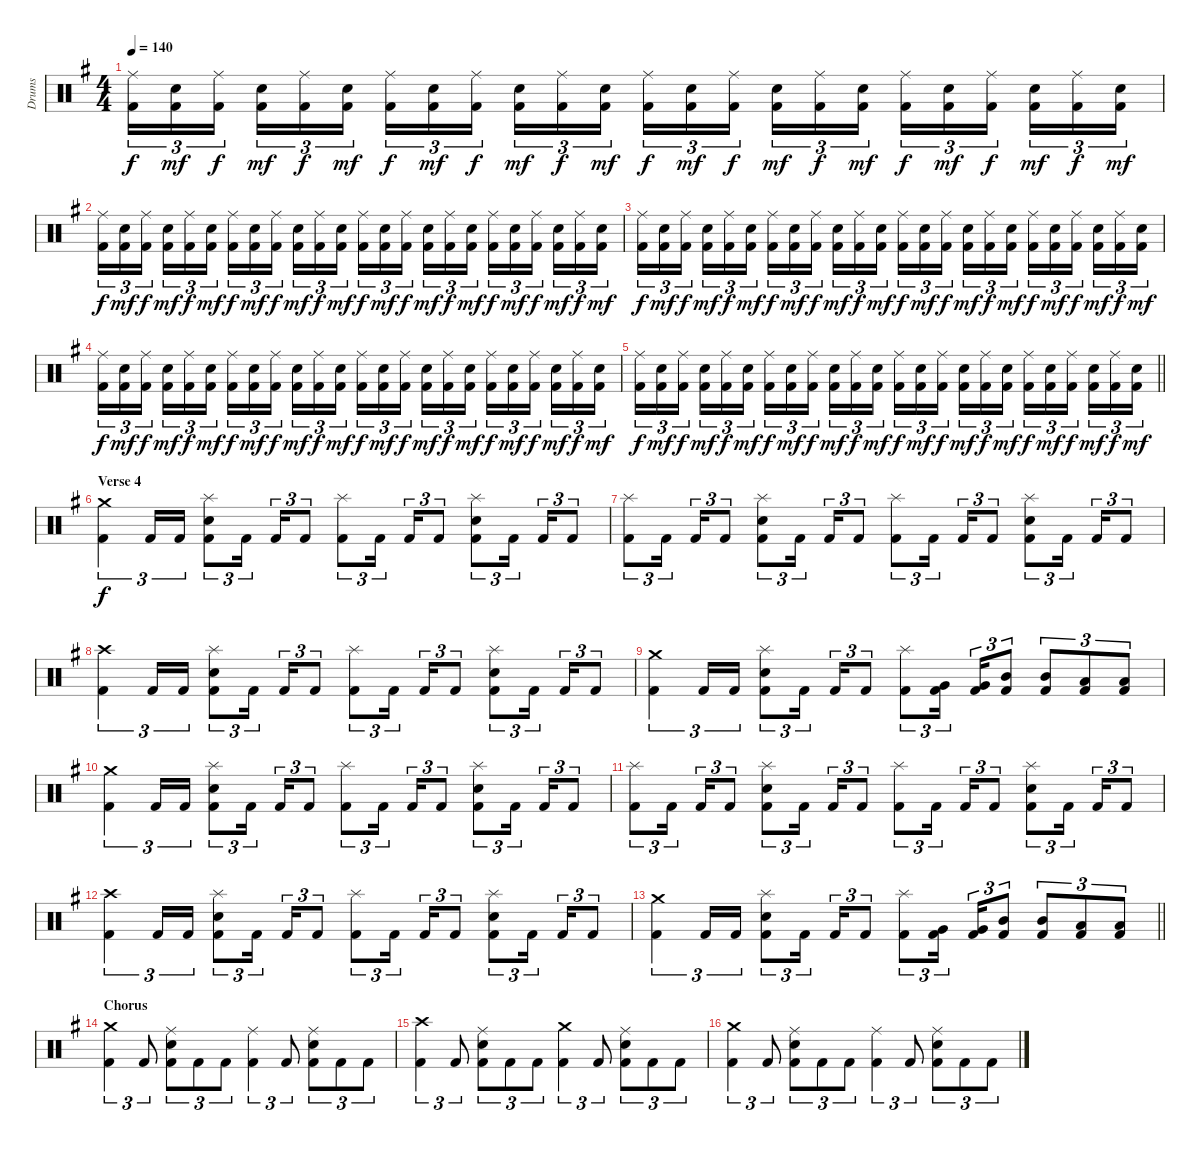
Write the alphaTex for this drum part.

\track ("Drums" "Drums") {instrument percussion}
\staff {score}
\articulation defaults
\ts (4 4)
\tempo 140
\clef neutral
\ks eminor
("Ride (middle)" "Kick (hit) 2").16{tu (3 2) dy f} ("Electric Snare (hit)" "Kick (hit) 2").16{tu (3 2) dy mf} ("Ride (middle)" "Kick (hit) 2").16{tu (3 2) dy f beam splitsecondary} ("Electric Snare (hit)" "Kick (hit) 2").16{tu (3 2) dy mf} ("Ride (middle)" "Kick (hit) 2").16{tu (3 2) dy f} ("Electric Snare (hit)" "Kick (hit) 2").16{tu (3 2) dy mf} ("Ride (middle)" "Kick (hit) 2").16{tu (3 2) dy f} ("Electric Snare (hit)" "Kick (hit) 2").16{tu (3 2) dy mf} ("Ride (middle)" "Kick (hit) 2").16{tu (3 2) dy f beam splitsecondary} ("Electric Snare (hit)" "Kick (hit) 2").16{tu (3 2) dy mf} ("Ride (middle)" "Kick (hit) 2").16{tu (3 2) dy f} ("Electric Snare (hit)" "Kick (hit) 2").16{tu (3 2) dy mf} ("Ride (middle)" "Kick (hit) 2").16{tu (3 2) dy f} ("Electric Snare (hit)" "Kick (hit) 2").16{tu (3 2) dy mf} ("Ride (middle)" "Kick (hit) 2").16{tu (3 2) dy f beam splitsecondary} ("Electric Snare (hit)" "Kick (hit) 2").16{tu (3 2) dy mf} ("Ride (middle)" "Kick (hit) 2").16{tu (3 2) dy f} ("Electric Snare (hit)" "Kick (hit) 2").16{tu (3 2) dy mf} ("Ride (middle)" "Kick (hit) 2").16{tu (3 2) dy f} ("Electric Snare (hit)" "Kick (hit) 2").16{tu (3 2) dy mf} ("Ride (middle)" "Kick (hit) 2").16{tu (3 2) dy f beam splitsecondary} ("Electric Snare (hit)" "Kick (hit) 2").16{tu (3 2) dy mf} ("Ride (middle)" "Kick (hit) 2").16{tu (3 2) dy f} ("Electric Snare (hit)" "Kick (hit) 2").16{tu (3 2) dy mf} |
("Ride (middle)" "Kick (hit) 2").16{tu (3 2) dy f} ("Electric Snare (hit)" "Kick (hit) 2").16{tu (3 2) dy mf} ("Ride (middle)" "Kick (hit) 2").16{tu (3 2) dy f beam splitsecondary} ("Electric Snare (hit)" "Kick (hit) 2").16{tu (3 2) dy mf} ("Ride (middle)" "Kick (hit) 2").16{tu (3 2) dy f} ("Electric Snare (hit)" "Kick (hit) 2").16{tu (3 2) dy mf} ("Ride (middle)" "Kick (hit) 2").16{tu (3 2) dy f} ("Electric Snare (hit)" "Kick (hit) 2").16{tu (3 2) dy mf} ("Ride (middle)" "Kick (hit) 2").16{tu (3 2) dy f beam splitsecondary} ("Electric Snare (hit)" "Kick (hit) 2").16{tu (3 2) dy mf} ("Ride (middle)" "Kick (hit) 2").16{tu (3 2) dy f} ("Electric Snare (hit)" "Kick (hit) 2").16{tu (3 2) dy mf} ("Ride (middle)" "Kick (hit) 2").16{tu (3 2) dy f} ("Electric Snare (hit)" "Kick (hit) 2").16{tu (3 2) dy mf} ("Ride (middle)" "Kick (hit) 2").16{tu (3 2) dy f beam splitsecondary} ("Electric Snare (hit)" "Kick (hit) 2").16{tu (3 2) dy mf} ("Ride (middle)" "Kick (hit) 2").16{tu (3 2) dy f} ("Electric Snare (hit)" "Kick (hit) 2").16{tu (3 2) dy mf} ("Ride (middle)" "Kick (hit) 2").16{tu (3 2) dy f} ("Electric Snare (hit)" "Kick (hit) 2").16{tu (3 2) dy mf} ("Ride (middle)" "Kick (hit) 2").16{tu (3 2) dy f beam splitsecondary} ("Electric Snare (hit)" "Kick (hit) 2").16{tu (3 2) dy mf} ("Ride (middle)" "Kick (hit) 2").16{tu (3 2) dy f} ("Electric Snare (hit)" "Kick (hit) 2").16{tu (3 2) dy mf} |
("Ride (middle)" "Kick (hit) 2").16{tu (3 2) dy f} ("Electric Snare (hit)" "Kick (hit) 2").16{tu (3 2) dy mf} ("Ride (middle)" "Kick (hit) 2").16{tu (3 2) dy f beam splitsecondary} ("Electric Snare (hit)" "Kick (hit) 2").16{tu (3 2) dy mf} ("Ride (middle)" "Kick (hit) 2").16{tu (3 2) dy f} ("Electric Snare (hit)" "Kick (hit) 2").16{tu (3 2) dy mf} ("Ride (middle)" "Kick (hit) 2").16{tu (3 2) dy f} ("Electric Snare (hit)" "Kick (hit) 2").16{tu (3 2) dy mf} ("Ride (middle)" "Kick (hit) 2").16{tu (3 2) dy f beam splitsecondary} ("Electric Snare (hit)" "Kick (hit) 2").16{tu (3 2) dy mf} ("Ride (middle)" "Kick (hit) 2").16{tu (3 2) dy f} ("Electric Snare (hit)" "Kick (hit) 2").16{tu (3 2) dy mf} ("Ride (middle)" "Kick (hit) 2").16{tu (3 2) dy f} ("Electric Snare (hit)" "Kick (hit) 2").16{tu (3 2) dy mf} ("Ride (middle)" "Kick (hit) 2").16{tu (3 2) dy f beam splitsecondary} ("Electric Snare (hit)" "Kick (hit) 2").16{tu (3 2) dy mf} ("Ride (middle)" "Kick (hit) 2").16{tu (3 2) dy f} ("Electric Snare (hit)" "Kick (hit) 2").16{tu (3 2) dy mf} ("Ride (middle)" "Kick (hit) 2").16{tu (3 2) dy f} ("Electric Snare (hit)" "Kick (hit) 2").16{tu (3 2) dy mf} ("Ride (middle)" "Kick (hit) 2").16{tu (3 2) dy f beam splitsecondary} ("Electric Snare (hit)" "Kick (hit) 2").16{tu (3 2) dy mf} ("Ride (middle)" "Kick (hit) 2").16{tu (3 2) dy f} ("Electric Snare (hit)" "Kick (hit) 2").16{tu (3 2) dy mf} |
("Ride (middle)" "Kick (hit) 2").16{tu (3 2) dy f} ("Electric Snare (hit)" "Kick (hit) 2").16{tu (3 2) dy mf} ("Ride (middle)" "Kick (hit) 2").16{tu (3 2) dy f beam splitsecondary} ("Electric Snare (hit)" "Kick (hit) 2").16{tu (3 2) dy mf} ("Ride (middle)" "Kick (hit) 2").16{tu (3 2) dy f} ("Electric Snare (hit)" "Kick (hit) 2").16{tu (3 2) dy mf} ("Ride (middle)" "Kick (hit) 2").16{tu (3 2) dy f} ("Electric Snare (hit)" "Kick (hit) 2").16{tu (3 2) dy mf} ("Ride (middle)" "Kick (hit) 2").16{tu (3 2) dy f beam splitsecondary} ("Electric Snare (hit)" "Kick (hit) 2").16{tu (3 2) dy mf} ("Ride (middle)" "Kick (hit) 2").16{tu (3 2) dy f} ("Electric Snare (hit)" "Kick (hit) 2").16{tu (3 2) dy mf} ("Ride (middle)" "Kick (hit) 2").16{tu (3 2) dy f} ("Electric Snare (hit)" "Kick (hit) 2").16{tu (3 2) dy mf} ("Ride (middle)" "Kick (hit) 2").16{tu (3 2) dy f beam splitsecondary} ("Electric Snare (hit)" "Kick (hit) 2").16{tu (3 2) dy mf} ("Ride (middle)" "Kick (hit) 2").16{tu (3 2) dy f} ("Electric Snare (hit)" "Kick (hit) 2").16{tu (3 2) dy mf} ("Ride (middle)" "Kick (hit) 2").16{tu (3 2) dy f} ("Electric Snare (hit)" "Kick (hit) 2").16{tu (3 2) dy mf} ("Ride (middle)" "Kick (hit) 2").16{tu (3 2) dy f beam splitsecondary} ("Electric Snare (hit)" "Kick (hit) 2").16{tu (3 2) dy mf} ("Ride (middle)" "Kick (hit) 2").16{tu (3 2) dy f} ("Electric Snare (hit)" "Kick (hit) 2").16{tu (3 2) dy mf} |
\barLineRight lightlight
("Ride (middle)" "Kick (hit) 2").16{tu (3 2) dy f} ("Electric Snare (hit)" "Kick (hit) 2").16{tu (3 2) dy mf} ("Ride (middle)" "Kick (hit) 2").16{tu (3 2) dy f beam splitsecondary} ("Electric Snare (hit)" "Kick (hit) 2").16{tu (3 2) dy mf} ("Ride (middle)" "Kick (hit) 2").16{tu (3 2) dy f} ("Electric Snare (hit)" "Kick (hit) 2").16{tu (3 2) dy mf} ("Ride (middle)" "Kick (hit) 2").16{tu (3 2) dy f} ("Electric Snare (hit)" "Kick (hit) 2").16{tu (3 2) dy mf} ("Ride (middle)" "Kick (hit) 2").16{tu (3 2) dy f beam splitsecondary} ("Electric Snare (hit)" "Kick (hit) 2").16{tu (3 2) dy mf} ("Ride (middle)" "Kick (hit) 2").16{tu (3 2) dy f} ("Electric Snare (hit)" "Kick (hit) 2").16{tu (3 2) dy mf} ("Ride (middle)" "Kick (hit) 2").16{tu (3 2) dy f} ("Electric Snare (hit)" "Kick (hit) 2").16{tu (3 2) dy mf} ("Ride (middle)" "Kick (hit) 2").16{tu (3 2) dy f beam splitsecondary} ("Electric Snare (hit)" "Kick (hit) 2").16{tu (3 2) dy mf} ("Ride (middle)" "Kick (hit) 2").16{tu (3 2) dy f} ("Electric Snare (hit)" "Kick (hit) 2").16{tu (3 2) dy mf} ("Ride (middle)" "Kick (hit) 2").16{tu (3 2) dy f} ("Electric Snare (hit)" "Kick (hit) 2").16{tu (3 2) dy mf} ("Ride (middle)" "Kick (hit) 2").16{tu (3 2) dy f beam splitsecondary} ("Electric Snare (hit)" "Kick (hit) 2").16{tu (3 2) dy mf} ("Ride (middle)" "Kick (hit) 2").16{tu (3 2) dy f} ("Electric Snare (hit)" "Kick (hit) 2").16{tu (3 2) dy mf} |
\section ("" "Verse 4")
("Crash medium (hit)" "Kick (hit) 2").4{tu (3 2) dy f} "Kick (hit) 2".16{tu (3 2)} "Kick (hit) 2".16{tu (3 2)} ("Splash (hit)" "Electric Snare (hit)" "Kick (hit) 2").8{tu (3 2)} "Kick (hit) 2".16{tu (3 2) beam splitsecondary} "Kick (hit) 2".16{tu (3 2)} "Kick (hit) 2".8{tu (3 2)} ("Splash (hit)" "Kick (hit) 2").8{tu (3 2)} "Kick (hit) 2".16{tu (3 2) beam splitsecondary} "Kick (hit) 2".16{tu (3 2)} "Kick (hit) 2".8{tu (3 2)} ("Splash (hit)" "Electric Snare (hit)" "Kick (hit) 2").8{tu (3 2)} "Kick (hit) 2".16{tu (3 2) beam splitsecondary} "Kick (hit) 2".16{tu (3 2)} "Kick (hit) 2".8{tu (3 2)} |
("Splash (hit)" "Kick (hit) 2").8{tu (3 2)} "Kick (hit) 2".16{tu (3 2) beam splitsecondary} "Kick (hit) 2".16{tu (3 2)} "Kick (hit) 2".8{tu (3 2)} ("Splash (hit)" "Electric Snare (hit)" "Kick (hit) 2").8{tu (3 2)} "Kick (hit) 2".16{tu (3 2) beam splitsecondary} "Kick (hit) 2".16{tu (3 2)} "Kick (hit) 2".8{tu (3 2)} ("Splash (hit)" "Kick (hit) 2").8{tu (3 2)} "Kick (hit) 2".16{tu (3 2) beam splitsecondary} "Kick (hit) 2".16{tu (3 2)} "Kick (hit) 2".8{tu (3 2)} ("Splash (hit)" "Electric Snare (hit)" "Kick (hit) 2").8{tu (3 2)} "Kick (hit) 2".16{tu (3 2) beam splitsecondary} "Kick (hit) 2".16{tu (3 2)} "Kick (hit) 2".8{tu (3 2)} |
("Crash high (hit)" "Kick (hit) 2").4{tu (3 2)} "Kick (hit) 2".16{tu (3 2)} "Kick (hit) 2".16{tu (3 2)} ("Splash (hit)" "Electric Snare (hit)" "Kick (hit) 2").8{tu (3 2)} "Kick (hit) 2".16{tu (3 2) beam splitsecondary} "Kick (hit) 2".16{tu (3 2)} "Kick (hit) 2".8{tu (3 2)} ("Splash (hit)" "Kick (hit) 2").8{tu (3 2)} "Kick (hit) 2".16{tu (3 2) beam splitsecondary} "Kick (hit) 2".16{tu (3 2)} "Kick (hit) 2".8{tu (3 2)} ("Splash (hit)" "Electric Snare (hit)" "Kick (hit) 2").8{tu (3 2)} "Kick (hit) 2".16{tu (3 2) beam splitsecondary} "Kick (hit) 2".16{tu (3 2)} "Kick (hit) 2".8{tu (3 2)} |
("Crash medium (hit)" "Kick (hit) 2").4{tu (3 2)} "Kick (hit) 2".16{tu (3 2)} "Kick (hit) 2".16{tu (3 2)} ("Splash (hit)" "Electric Snare (hit)" "Kick (hit) 2").8{tu (3 2)} "Kick (hit) 2".16{tu (3 2) beam splitsecondary} "Kick (hit) 2".16{tu (3 2)} "Kick (hit) 2".8{tu (3 2)} ("Splash (hit)" "Kick (hit) 2").8{tu (3 2)} ("Very Low Tom (hit)" "Kick (hit) 2").16{tu (3 2) beam splitsecondary} ("Very Low Tom (hit)" "Kick (hit) 2").16{tu (3 2)} ("Mid Tom (hit)" "Kick (hit) 2").8{tu (3 2)} ("Mid Tom (hit)" "Kick (hit) 2").8{tu (3 2)} ("Low Tom (hit)" "Kick (hit) 2").8{tu (3 2)} ("Low Tom (hit)" "Kick (hit) 2").8{tu (3 2)} |
("Crash medium (hit)" "Kick (hit) 2").4{tu (3 2)} "Kick (hit) 2".16{tu (3 2)} "Kick (hit) 2".16{tu (3 2)} ("Splash (hit)" "Electric Snare (hit)" "Kick (hit) 2").8{tu (3 2)} "Kick (hit) 2".16{tu (3 2) beam splitsecondary} "Kick (hit) 2".16{tu (3 2)} "Kick (hit) 2".8{tu (3 2)} ("Splash (hit)" "Kick (hit) 2").8{tu (3 2)} "Kick (hit) 2".16{tu (3 2) beam splitsecondary} "Kick (hit) 2".16{tu (3 2)} "Kick (hit) 2".8{tu (3 2)} ("Splash (hit)" "Electric Snare (hit)" "Kick (hit) 2").8{tu (3 2)} "Kick (hit) 2".16{tu (3 2) beam splitsecondary} "Kick (hit) 2".16{tu (3 2)} "Kick (hit) 2".8{tu (3 2)} |
("Splash (hit)" "Kick (hit) 2").8{tu (3 2)} "Kick (hit) 2".16{tu (3 2) beam splitsecondary} "Kick (hit) 2".16{tu (3 2)} "Kick (hit) 2".8{tu (3 2)} ("Splash (hit)" "Electric Snare (hit)" "Kick (hit) 2").8{tu (3 2)} "Kick (hit) 2".16{tu (3 2) beam splitsecondary} "Kick (hit) 2".16{tu (3 2)} "Kick (hit) 2".8{tu (3 2)} ("Splash (hit)" "Kick (hit) 2").8{tu (3 2)} "Kick (hit) 2".16{tu (3 2) beam splitsecondary} "Kick (hit) 2".16{tu (3 2)} "Kick (hit) 2".8{tu (3 2)} ("Splash (hit)" "Electric Snare (hit)" "Kick (hit) 2").8{tu (3 2)} "Kick (hit) 2".16{tu (3 2) beam splitsecondary} "Kick (hit) 2".16{tu (3 2)} "Kick (hit) 2".8{tu (3 2)} |
("Crash high (hit)" "Kick (hit) 2").4{tu (3 2)} "Kick (hit) 2".16{tu (3 2)} "Kick (hit) 2".16{tu (3 2)} ("Splash (hit)" "Electric Snare (hit)" "Kick (hit) 2").8{tu (3 2)} "Kick (hit) 2".16{tu (3 2) beam splitsecondary} "Kick (hit) 2".16{tu (3 2)} "Kick (hit) 2".8{tu (3 2)} ("Splash (hit)" "Kick (hit) 2").8{tu (3 2)} "Kick (hit) 2".16{tu (3 2) beam splitsecondary} "Kick (hit) 2".16{tu (3 2)} "Kick (hit) 2".8{tu (3 2)} ("Splash (hit)" "Electric Snare (hit)" "Kick (hit) 2").8{tu (3 2)} "Kick (hit) 2".16{tu (3 2) beam splitsecondary} "Kick (hit) 2".16{tu (3 2)} "Kick (hit) 2".8{tu (3 2)} |
\barLineRight lightlight
("Crash medium (hit)" "Kick (hit) 2").4{tu (3 2)} "Kick (hit) 2".16{tu (3 2)} "Kick (hit) 2".16{tu (3 2)} ("Splash (hit)" "Electric Snare (hit)" "Kick (hit) 2").8{tu (3 2)} "Kick (hit) 2".16{tu (3 2) beam splitsecondary} "Kick (hit) 2".16{tu (3 2)} "Kick (hit) 2".8{tu (3 2)} ("Splash (hit)" "Kick (hit) 2").8{tu (3 2)} ("Very Low Tom (hit)" "Kick (hit) 2").16{tu (3 2) beam splitsecondary} ("Very Low Tom (hit)" "Kick (hit) 2").16{tu (3 2)} ("Mid Tom (hit)" "Kick (hit) 2").8{tu (3 2)} ("Mid Tom (hit)" "Kick (hit) 2").8{tu (3 2)} ("Low Tom (hit)" "Kick (hit) 2").8{tu (3 2)} ("Low Tom (hit)" "Kick (hit) 2").8{tu (3 2)} |
\section ("" "Chorus")
("Crash medium (hit)" "Kick (hit) 2").4{tu (3 2)} "Kick (hit) 2".8{tu (3 2)} ("Ride (middle)" "Electric Snare (hit)" "Kick (hit) 2").8{tu (3 2)} "Kick (hit) 2".8{tu (3 2)} "Kick (hit) 2".8{tu (3 2)} ("Ride (middle)" "Kick (hit) 2").4{tu (3 2)} "Kick (hit) 2".8{tu (3 2)} ("Ride (middle)" "Electric Snare (hit)" "Kick (hit) 2").8{tu (3 2)} "Kick (hit) 2".8{tu (3 2)} "Kick (hit) 2".8{tu (3 2)} |
("Crash high (hit)" "Kick (hit) 2").4{tu (3 2)} "Kick (hit) 2".8{tu (3 2)} ("Ride (middle)" "Electric Snare (hit)" "Kick (hit) 2").8{tu (3 2)} "Kick (hit) 2".8{tu (3 2)} "Kick (hit) 2".8{tu (3 2)} ("Crash medium (hit)" "Kick (hit) 2").4{tu (3 2)} "Kick (hit) 2".8{tu (3 2)} ("Ride (middle)" "Electric Snare (hit)" "Kick (hit) 2").8{tu (3 2)} "Kick (hit) 2".8{tu (3 2)} "Kick (hit) 2".8{tu (3 2)} |
("Crash medium (hit)" "Kick (hit) 2").4{tu (3 2)} "Kick (hit) 2".8{tu (3 2)} ("Ride (middle)" "Electric Snare (hit)" "Kick (hit) 2").8{tu (3 2)} "Kick (hit) 2".8{tu (3 2)} "Kick (hit) 2".8{tu (3 2)} ("Ride (middle)" "Kick (hit) 2").4{tu (3 2)} "Kick (hit) 2".8{tu (3 2)} ("Ride (middle)" "Electric Snare (hit)" "Kick (hit) 2").8{tu (3 2)} "Kick (hit) 2".8{tu (3 2)} "Kick (hit) 2".8{tu (3 2)}
